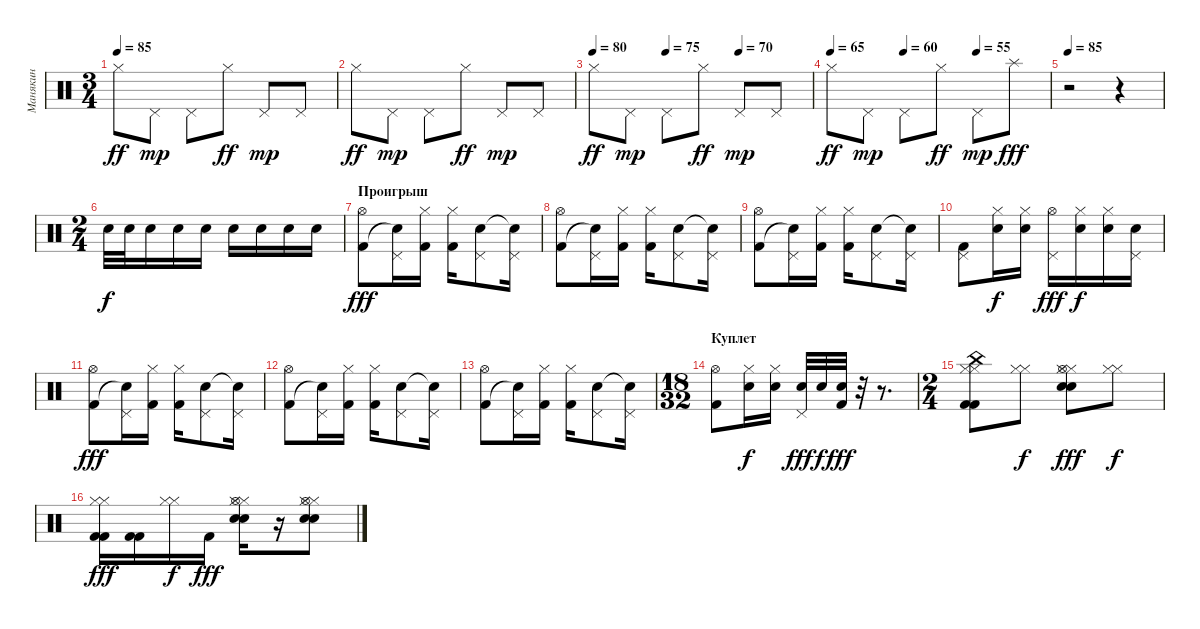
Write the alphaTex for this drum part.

\track ("Манякин" "Манякин") {instrument percussion}
\staff {score}
\articulation defaults
\ts (3 4)
\tempo 85
\clef neutral
\ks c "Hi-Hat (closed)".8{dy ff} "Pedal Hi-Hat (hit)".8{dy mp} "Pedal Hi-Hat (hit)".8 "Hi-Hat (closed)".8{dy ff} "Pedal Hi-Hat (hit)".8{dy mp} "Pedal Hi-Hat (hit)".8
|
"Hi-Hat (closed)".8{dy ff} "Pedal Hi-Hat (hit)".8{dy mp} "Pedal Hi-Hat (hit)".8 "Hi-Hat (closed)".8{dy ff} "Pedal Hi-Hat (hit)".8{dy mp} "Pedal Hi-Hat (hit)".8 |
\tempo 80
\tempo (75 0.3333333333333333)
\tempo (70 0.6666666666666666)
"Hi-Hat (closed)".8{dy ff} "Pedal Hi-Hat (hit)".8{dy mp} "Pedal Hi-Hat (hit)".8 "Hi-Hat (closed)".8{dy ff} "Pedal Hi-Hat (hit)".8{dy mp} "Pedal Hi-Hat (hit)".8 |
\tempo 65
\tempo (60 0.3333333333333333)
\tempo (55 0.6666666666666666)
"Hi-Hat (closed)".8{dy ff} "Pedal Hi-Hat (hit)".8{dy mp} "Pedal Hi-Hat (hit)".8 "Hi-Hat (closed)".8{dy ff} "Pedal Hi-Hat (hit)".8{dy mp} "Splash (hit)".8{dy fff} |
\tempo 85
r.2 r.4 |
\ts (2 4)
"Snare (hit) 2".32{dy f} "Snare (hit) 2".32 "Snare (hit) 2".16 "Snare (hit) 2".16 "Snare (hit) 2".16 "Snare (hit) 2".16 "Snare (hit) 2".16 "Snare (hit) 2".16 "Snare (hit) 2".16 |
\section ("" "Проигрыш")
("Kick (hit) 2" "Hi-Hat (open)").8{dy fff} ("Snare (hit)"{t} "Pedal Hi-Hat (hit)").16 ("Kick (hit) 2" "Hi-Hat (closed)").16 ("Kick (hit) 2" "Hi-Hat (closed)").16 ("Snare (hit) 2" "Pedal Hi-Hat (hit)").8 ("Snare (hit)"{t} "Pedal Hi-Hat (hit)").16 |
("Kick (hit) 2" "Hi-Hat (open)").8 ("Snare (hit)"{t} "Pedal Hi-Hat (hit)").16 ("Kick (hit) 2" "Hi-Hat (closed)").16 ("Kick (hit) 2" "Hi-Hat (closed)").16 ("Snare (hit) 2" "Pedal Hi-Hat (hit)").8 ("Snare (hit)"{t} "Pedal Hi-Hat (hit)").16 |
("Kick (hit) 2" "Hi-Hat (open)").8 ("Snare (hit)"{t} "Pedal Hi-Hat (hit)").16 ("Kick (hit) 2" "Hi-Hat (closed)").16 ("Kick (hit) 2" "Hi-Hat (closed)").16 ("Snare (hit) 2" "Pedal Hi-Hat (hit)").8 ("Snare (hit)"{t} "Pedal Hi-Hat (hit)").16 |
("Kick (hit) 2" "Pedal Hi-Hat (hit)").8 ("Snare (hit) 2" "Hi-Hat (closed)").16{dy f} ("Snare (hit) 2" "Hi-Hat (closed)").16 ("Hi-Hat (open)" "Pedal Hi-Hat (hit)").16{dy fff} ("Snare (hit) 2" "Hi-Hat (closed)").16{dy f} ("Snare (hit) 2" "Hi-Hat (closed)").16 ("Snare (hit) 2" "Pedal Hi-Hat (hit)").16 |
("Kick (hit) 2" "Hi-Hat (open)").8{dy fff} ("Snare (hit)"{t} "Pedal Hi-Hat (hit)").16 ("Kick (hit) 2" "Hi-Hat (closed)").16 ("Kick (hit) 2" "Hi-Hat (closed)").16 ("Snare (hit) 2" "Pedal Hi-Hat (hit)").8 ("Snare (hit)"{t} "Pedal Hi-Hat (hit)").16 |
("Kick (hit) 2" "Hi-Hat (open)").8 ("Snare (hit)"{t} "Pedal Hi-Hat (hit)").16 ("Kick (hit) 2" "Hi-Hat (closed)").16 ("Kick (hit) 2" "Hi-Hat (closed)").16 ("Snare (hit) 2" "Pedal Hi-Hat (hit)").8 ("Snare (hit)"{t} "Pedal Hi-Hat (hit)").16 |
("Kick (hit) 2" "Hi-Hat (open)").8 ("Snare (hit)"{t} "Pedal Hi-Hat (hit)").16 ("Kick (hit) 2" "Hi-Hat (closed)").16 ("Kick (hit) 2" "Hi-Hat (closed)").16 ("Snare (hit) 2" "Pedal Hi-Hat (hit)").8 ("Snare (hit)"{t} "Pedal Hi-Hat (hit)").16 |
\ts (18 32)
\section ("" "Куплет")
("Kick (hit) 2" "Hi-Hat (open)").8 ("Snare (hit) 2" "Hi-Hat (closed)").16{dy f} ("Snare (hit) 2" "Hi-Hat (closed)").16 ("Snare (hit) 2" "Pedal Hi-Hat (hit)").32{dy fff} "Snare (hit) 2".32{dy f} ("Snare (hit) 2" "Kick (hit) 2").32{dy fff} r.32 r.8{d} |
\ts (2 4)
("Kick (hit) 2" "Kick (hit) 2" "Hi-Hat (closed)" "Hi-Hat (closed)" "China (hit)").8 ("Hi-Hat (closed)" "Hi-Hat (closed)").8{dy f} ("Snare (hit) 2" "Snare (hit) 2" "Hi-Hat (closed)" "Hi-Hat (closed)" "Hi-Hat (open)").8{dy fff} ("Hi-Hat (closed)" "Hi-Hat (closed)").8{dy f} |
("Kick (hit) 2" "Kick (hit) 2" "Hi-Hat (closed)" "Hi-Hat (closed)").16{dy fff} ("Kick (hit) 2" "Kick (hit) 2").16 ("Hi-Hat (closed)" "Hi-Hat (closed)").16{dy f} "Kick (hit) 2".16{dy fff} ("Snare (hit) 2" "Snare (hit) 2" "Hi-Hat (closed)" "Hi-Hat (closed)" "Hi-Hat (open)").16 r.16 ("Snare (hit) 2" "Snare (hit) 2" "Hi-Hat (closed)" "Hi-Hat (closed)" "Hi-Hat (open)").8
